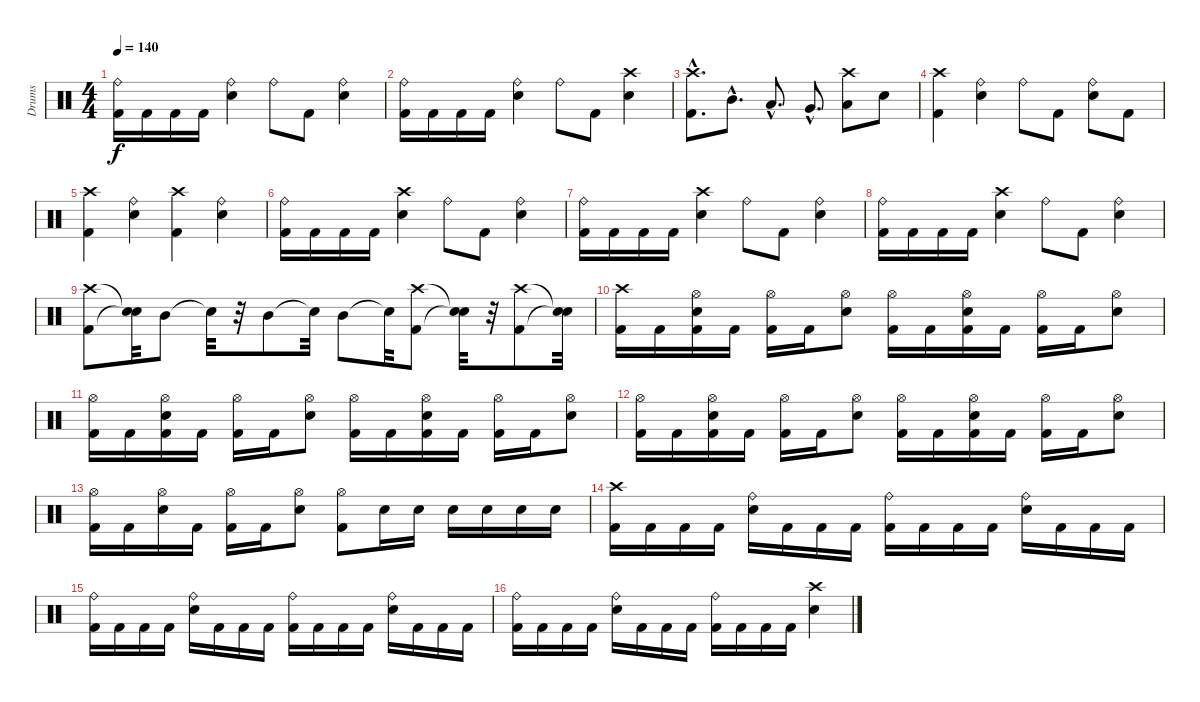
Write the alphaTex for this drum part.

\track ("Drums" "Drums") {instrument percussion}
\staff {score}
\articulation defaults
\ts (4 4)
\tempo 140
\clef neutral
\ks c
("Kick (hit) 2" "Ride (bell)").16{dy f} "Kick (hit) 2".16 "Kick (hit) 2".16 "Kick (hit) 2".16 ("Ride (bell)" "Snare (hit) 2").4 "Ride (bell)".8 "Kick (hit) 2".8 ("Ride (bell)" "Snare (hit) 2").4 |
("Kick (hit) 2" "Ride (bell)").16 "Kick (hit) 2".16 "Kick (hit) 2".16 "Kick (hit) 2".16 ("Ride (bell)" "Snare (hit) 2").4 "Ride (bell)".8 "Kick (hit) 2".8 ("Snare (hit) 2" "Crash high (hit)").4 |
("Crash high (hit)"{hac} "Kick (hit) 2").8{d} "Mid Tom (hit)"{hac}.8{d} "Low Tom (hit)"{hac}.8{d} "Very Low Tom (hit)"{hac}.8{d} ("Crash high (hit)" "Low Floor Tom (hit)").8 "Snare (hit) 2".8 |
("Kick (hit) 2" "Crash high (hit)").4 ("Ride (bell)" "Snare (hit) 2").4 "Ride (bell)".8 "Kick (hit) 2".8 ("Snare (hit) 2" "Ride (bell)").8 "Kick (hit) 2".8 |
("Crash high (hit)" "Kick (hit) 2").4 ("Ride (bell)" "Snare (hit) 2").4 ("Kick (hit) 2" "Crash high (hit)").4 ("Snare (hit) 2" "Ride (bell)").4 |
("Kick (hit) 2" "Ride (bell)").16 "Kick (hit) 2".16 "Kick (hit) 2".16 "Kick (hit) 2".16 ("Crash high (hit)" "Snare (hit) 2").4 "Ride (bell)".8 "Kick (hit) 2".8 ("Snare (hit) 2" "Ride (bell)").4 |
("Kick (hit) 2" "Ride (bell)").16 "Kick (hit) 2".16 "Kick (hit) 2".16 "Kick (hit) 2".16 ("Snare (hit) 2" "Crash high (hit)").4 "Ride (bell)".8 "Kick (hit) 2".8 ("Snare (hit) 2" "Ride (bell)").4 |
("Kick (hit) 2" "Ride (bell)").16 "Kick (hit) 2".16 "Kick (hit) 2".16 "Kick (hit) 2".16 ("Snare (hit) 2" "Crash high (hit)").4 "Ride (bell)".8 "Kick (hit) 2".8 ("Ride (bell)" "Snare (hit) 2").4 |
("Kick (hit) 2" "Crash high (hit)").8 ("Snare (hit)"{t} "Snare (hit)"{t}).32 "Mid Tom (hit)".8 "Snare (hit)"{t}.32 r.32 "Mid Tom (hit)".8 "Snare (hit)"{t}.32 "Mid Tom (hit)".8 "Snare (hit)"{t}.32 ("Crash high (hit)" "Kick (hit) 2").8 ("Snare (hit)"{t} "Snare (hit)"{t}).32 r.32 ("Kick (hit) 2" "Crash high (hit)").8 ("Snare (hit)"{t} "Snare (hit)"{t}).32 |
("Kick (hit) 2" "Crash high (hit)").16 "Kick (hit) 2".16 ("Kick (hit) 2" "Snare (hit) 2" "Hi-Hat (open)").16 "Kick (hit) 2".16 ("Kick (hit) 2" "Hi-Hat (open)").16 "Kick (hit) 2".16 ("Hi-Hat (open)" "Snare (hit) 2").8 ("Hi-Hat (open)" "Kick (hit) 2").16 "Kick (hit) 2".16 ("Hi-Hat (open)" "Snare (hit) 2" "Kick (hit) 2").16 "Kick (hit) 2".16 ("Kick (hit) 2" "Hi-Hat (open)").16 "Kick (hit) 2".16 ("Snare (hit) 2" "Hi-Hat (open)").8 |
("Kick (hit) 2" "Hi-Hat (open)").16 "Kick (hit) 2".16 ("Kick (hit) 2" "Hi-Hat (open)" "Snare (hit) 2").16 "Kick (hit) 2".16 ("Kick (hit) 2" "Hi-Hat (open)").16 "Kick (hit) 2".16 ("Snare (hit) 2" "Hi-Hat (open)").8 ("Hi-Hat (open)" "Kick (hit) 2").16 "Kick (hit) 2".16 ("Kick (hit) 2" "Snare (hit) 2" "Hi-Hat (open)").16 "Kick (hit) 2".16 ("Hi-Hat (open)" "Kick (hit) 2").16 "Kick (hit) 2".16 ("Snare (hit) 2" "Hi-Hat (open)").8 |
("Kick (hit) 2" "Hi-Hat (open)").16 "Kick (hit) 2".16 ("Snare (hit) 2" "Hi-Hat (open)" "Kick (hit) 2").16 "Kick (hit) 2".16 ("Kick (hit) 2" "Hi-Hat (open)").16 "Kick (hit) 2".16 ("Hi-Hat (open)" "Snare (hit) 2").8 ("Hi-Hat (open)" "Kick (hit) 2").16 "Kick (hit) 2".16 ("Hi-Hat (open)" "Snare (hit) 2" "Kick (hit) 2").16 "Kick (hit) 2".16 ("Kick (hit) 2" "Hi-Hat (open)").16 "Kick (hit) 2".16 ("Snare (hit) 2" "Hi-Hat (open)").8 |
("Kick (hit) 2" "Hi-Hat (open)").16 "Kick (hit) 2".16 ("Snare (hit) 2" "Hi-Hat (open)").16 "Kick (hit) 2".16 ("Kick (hit) 2" "Hi-Hat (open)").16 "Kick (hit) 2".16 ("Hi-Hat (open)" "Snare (hit) 2").8 ("Kick (hit) 2" "Hi-Hat (open)").8 "Snare (hit) 2".16 "Snare (hit) 2".16 "Snare (hit) 2".16 "Snare (hit) 2".16 "Snare (hit) 2".16 "Snare (hit) 2".16 |
("Kick (hit) 2" "Crash high (hit)").16 "Kick (hit) 2".16 "Kick (hit) 2".16 "Kick (hit) 2".16 ("Snare (hit) 2" "Ride (bell)").16 "Kick (hit) 2".16 "Kick (hit) 2".16 "Kick (hit) 2".16 ("Kick (hit) 2" "Ride (bell)").16 "Kick (hit) 2".16 "Kick (hit) 2".16 "Kick (hit) 2".16 ("Snare (hit) 2" "Ride (bell)").16 "Kick (hit) 2".16 "Kick (hit) 2".16 "Kick (hit) 2".16 |
("Kick (hit) 2" "Ride (bell)").16 "Kick (hit) 2".16 "Kick (hit) 2".16 "Kick (hit) 2".16 ("Ride (bell)" "Snare (hit) 2").16 "Kick (hit) 2".16 "Kick (hit) 2".16 "Kick (hit) 2".16 ("Kick (hit) 2" "Ride (bell)").16 "Kick (hit) 2".16 "Kick (hit) 2".16 "Kick (hit) 2".16 ("Ride (bell)" "Snare (hit) 2").16 "Kick (hit) 2".16 "Kick (hit) 2".16 "Kick (hit) 2".16 |
("Kick (hit) 2" "Ride (bell)").16 "Kick (hit) 2".16 "Kick (hit) 2".16 "Kick (hit) 2".16 ("Snare (hit) 2" "Ride (bell)").16 "Kick (hit) 2".16 "Kick (hit) 2".16 "Kick (hit) 2".16 ("Kick (hit) 2" "Ride (bell)").16 "Kick (hit) 2".16 "Kick (hit) 2".16 "Kick (hit) 2".16 ("Snare (hit) 2" "Crash high (hit)").4
